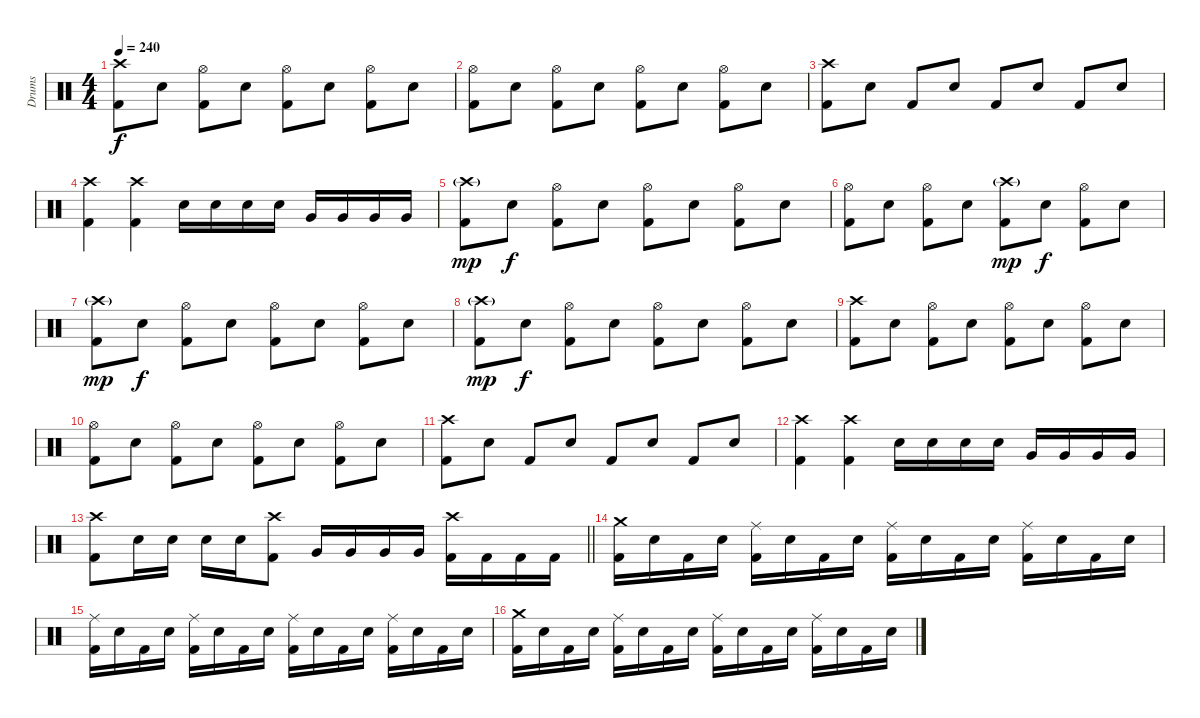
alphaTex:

\track ("Drums" "Drums") {instrument percussion}
\staff {score}
\articulation defaults
\ts (4 4)
\tempo 240
\clef neutral
\ks c
("Crash high (hit)" "Kick (hit) 2").8{dy f} "Snare (hit) 2".8 ("Hi-Hat (open)" "Kick (hit) 2").8 "Snare (hit) 2".8 ("Hi-Hat (open)" "Kick (hit) 2").8 "Snare (hit) 2".8 ("Hi-Hat (open)" "Kick (hit) 2").8 "Snare (hit) 2".8 |
("Hi-Hat (open)" "Kick (hit) 2").8 "Snare (hit) 2".8 ("Hi-Hat (open)" "Kick (hit) 2").8 "Snare (hit) 2".8 ("Hi-Hat (open)" "Kick (hit) 2").8 "Snare (hit) 2".8 ("Hi-Hat (open)" "Kick (hit) 2").8 "Snare (hit) 2".8 |
("Crash high (hit)" "Kick (hit) 2").8 "Snare (hit) 2".8 "Kick (hit) 2".8 "Snare (hit) 2".8 "Kick (hit) 2".8 "Snare (hit) 2".8 "Kick (hit) 2".8 "Snare (hit) 2".8 |
("Crash high (hit)" "Kick (hit) 2").4 ("Crash high (hit)" "Kick (hit) 2").4 "Snare (hit) 2".16 "Snare (hit) 2".16 "Snare (hit) 2".16 "Snare (hit) 2".16 "Very Low Tom (hit)".16 "Very Low Tom (hit)".16 "Very Low Tom (hit)".16 "Very Low Tom (hit)".16 |
("Crash high (hit)"{g} "Kick (hit) 2").8{dy mp} "Snare (hit) 2".8{dy f} ("Hi-Hat (open)" "Kick (hit) 2").8 "Snare (hit) 2".8 ("Hi-Hat (open)" "Kick (hit) 2").8 "Snare (hit) 2".8 ("Hi-Hat (open)" "Kick (hit) 2").8 "Snare (hit) 2".8 |
("Hi-Hat (open)" "Kick (hit) 2").8 "Snare (hit) 2".8 ("Hi-Hat (open)" "Kick (hit) 2").8 "Snare (hit) 2".8 ("Crash high (hit)"{g} "Kick (hit) 2").8{dy mp} "Snare (hit) 2".8{dy f} ("Hi-Hat (open)" "Kick (hit) 2").8 "Snare (hit) 2".8 |
("Crash high (hit)"{g} "Kick (hit) 2").8{dy mp} "Snare (hit) 2".8{dy f} ("Hi-Hat (open)" "Kick (hit) 2").8 "Snare (hit) 2".8 ("Hi-Hat (open)" "Kick (hit) 2").8 "Snare (hit) 2".8 ("Hi-Hat (open)" "Kick (hit) 2").8 "Snare (hit) 2".8 |
("Crash high (hit)"{g} "Kick (hit) 2").8{dy mp} "Snare (hit) 2".8{dy f} ("Hi-Hat (open)" "Kick (hit) 2").8 "Snare (hit) 2".8 ("Hi-Hat (open)" "Kick (hit) 2").8 "Snare (hit) 2".8 ("Hi-Hat (open)" "Kick (hit) 2").8 "Snare (hit) 2".8 |
("Crash high (hit)" "Kick (hit) 2").8 "Snare (hit) 2".8 ("Hi-Hat (open)" "Kick (hit) 2").8 "Snare (hit) 2".8 ("Hi-Hat (open)" "Kick (hit) 2").8 "Snare (hit) 2".8 ("Hi-Hat (open)" "Kick (hit) 2").8 "Snare (hit) 2".8 |
("Hi-Hat (open)" "Kick (hit) 2").8 "Snare (hit) 2".8 ("Hi-Hat (open)" "Kick (hit) 2").8 "Snare (hit) 2".8 ("Hi-Hat (open)" "Kick (hit) 2").8 "Snare (hit) 2".8 ("Hi-Hat (open)" "Kick (hit) 2").8 "Snare (hit) 2".8 |
("Crash high (hit)" "Kick (hit) 2").8 "Snare (hit) 2".8 "Kick (hit) 2".8 "Snare (hit) 2".8 "Kick (hit) 2".8 "Snare (hit) 2".8 "Kick (hit) 2".8 "Snare (hit) 2".8 |
("Crash high (hit)" "Kick (hit) 2").4 ("Crash high (hit)" "Kick (hit) 2").4 "Snare (hit) 2".16 "Snare (hit) 2".16 "Snare (hit) 2".16 "Snare (hit) 2".16 "Very Low Tom (hit)".16 "Very Low Tom (hit)".16 "Very Low Tom (hit)".16 "Very Low Tom (hit)".16 |
\barLineRight lightlight
("Crash high (hit)" "Kick (hit) 2").8 "Snare (hit) 2".16 "Snare (hit) 2".16 "Snare (hit) 2".16 "Snare (hit) 2".16 ("Crash high (hit)" "Kick (hit) 2").8 "Very Low Tom (hit)".16 "Very Low Tom (hit)".16 "Very Low Tom (hit)".16 "Very Low Tom (hit)".16 ("Crash high (hit)" "Kick (hit) 2").16 "Kick (hit) 2".16 "Kick (hit) 2".16 "Kick (hit) 2".16 |
\section ("" "")
("Crash medium (hit)" "Kick (hit) 2").16 "Snare (hit) 2".16 "Kick (hit) 2".16 "Snare (hit) 2".16 ("Ride (middle)" "Kick (hit) 2").16 "Snare (hit) 2".16 "Kick (hit) 2".16 "Snare (hit) 2".16 ("Ride (middle)" "Kick (hit) 2").16 "Snare (hit) 2".16 "Kick (hit) 2".16 "Snare (hit) 2".16 ("Ride (middle)" "Kick (hit) 2").16 "Snare (hit) 2".16 "Kick (hit) 2".16 "Snare (hit) 2".16 |
("Ride (middle)" "Kick (hit) 2").16 "Snare (hit) 2".16 "Kick (hit) 2".16 "Snare (hit) 2".16 ("Ride (middle)" "Kick (hit) 2").16 "Snare (hit) 2".16 "Kick (hit) 2".16 "Snare (hit) 2".16 ("Ride (middle)" "Kick (hit) 2").16 "Snare (hit) 2".16 "Kick (hit) 2".16 "Snare (hit) 2".16 ("Ride (middle)" "Kick (hit) 2").16 "Snare (hit) 2".16 "Kick (hit) 2".16 "Snare (hit) 2".16 |
("Crash medium (hit)" "Kick (hit) 2").16 "Snare (hit) 2".16 "Kick (hit) 2".16 "Snare (hit) 2".16 ("Ride (middle)" "Kick (hit) 2").16 "Snare (hit) 2".16 "Kick (hit) 2".16 "Snare (hit) 2".16 ("Ride (middle)" "Kick (hit) 2").16 "Snare (hit) 2".16 "Kick (hit) 2".16 "Snare (hit) 2".16 ("Ride (middle)" "Kick (hit) 2").16 "Snare (hit) 2".16 "Kick (hit) 2".16 "Snare (hit) 2".16
